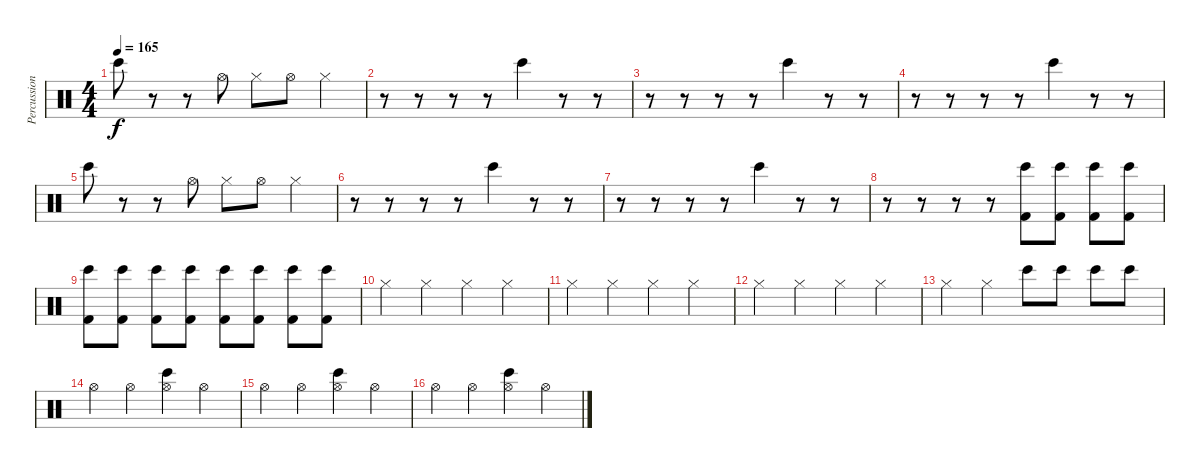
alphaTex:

\track ("Percussion" "Percussion") {instrument percussion}
\staff {score}
\articulation defaults
\ts (4 4)
\tempo 165
\clef neutral
\ks c "Bongo High (hit)".8{dy f}
r.8 r.8 "Hi-Hat (open)".8 "Hi-Hat (closed)".8 "Hi-Hat (open)".8 "Hi-Hat (closed)".4 |
r.8 r.8 r.8 r.8 "Bongo High (hit)".4 r.8 r.8 |
r.8 r.8 r.8 r.8 "Bongo High (hit)".4 r.8 r.8 |
r.8 r.8 r.8 r.8 "Bongo High (hit)".4 r.8 r.8 |
"Bongo High (hit)".8 r.8 r.8 "Hi-Hat (open)".8 "Hi-Hat (closed)".8 "Hi-Hat (open)".8 "Hi-Hat (closed)".4 |
r.8 r.8 r.8 r.8 "Bongo High (hit)".4 r.8 r.8 |
r.8 r.8 r.8 r.8 "Bongo High (hit)".4 r.8 r.8 |
r.8 r.8 r.8 r.8 ("Bongo High (hit)" "Kick (hit) 2").8 ("Bongo High (hit)" "Kick (hit) 2").8 ("Bongo High (hit)" "Kick (hit) 2").8 ("Bongo High (hit)" "Kick (hit) 2").8 |
("Bongo High (hit)" "Kick (hit) 2").8 ("Bongo High (hit)" "Kick (hit) 2").8 ("Bongo High (hit)" "Kick (hit) 2").8 ("Bongo High (hit)" "Kick (hit) 2").8 ("Bongo High (hit)" "Kick (hit) 2").8 ("Bongo High (hit)" "Kick (hit) 2").8 ("Bongo High (hit)" "Kick (hit) 2").8 ("Bongo High (hit)" "Kick (hit) 2").8 |
"Hi-Hat (closed)".4 "Hi-Hat (closed)".4 "Hi-Hat (closed)".4 "Hi-Hat (closed)".4 |
"Hi-Hat (closed)".4 "Hi-Hat (closed)".4 "Hi-Hat (closed)".4 "Hi-Hat (closed)".4 |
"Hi-Hat (closed)".4 "Hi-Hat (closed)".4 "Hi-Hat (closed)".4 "Hi-Hat (closed)".4 |
"Hi-Hat (closed)".4 "Hi-Hat (closed)".4 "Bongo High (hit)".8 "Bongo High (hit)".8 "Bongo High (hit)".8 "Bongo High (hit)".8 |
"Hi-Hat (open)".4 "Hi-Hat (open)".4 ("Bongo High (hit)" "Hi-Hat (open)").4 "Hi-Hat (open)".4 |
"Hi-Hat (open)".4 "Hi-Hat (open)".4 ("Bongo High (hit)" "Hi-Hat (open)").4 "Hi-Hat (open)".4 |
"Hi-Hat (open)".4 "Hi-Hat (open)".4 ("Bongo High (hit)" "Hi-Hat (open)").4 "Hi-Hat (open)".4
